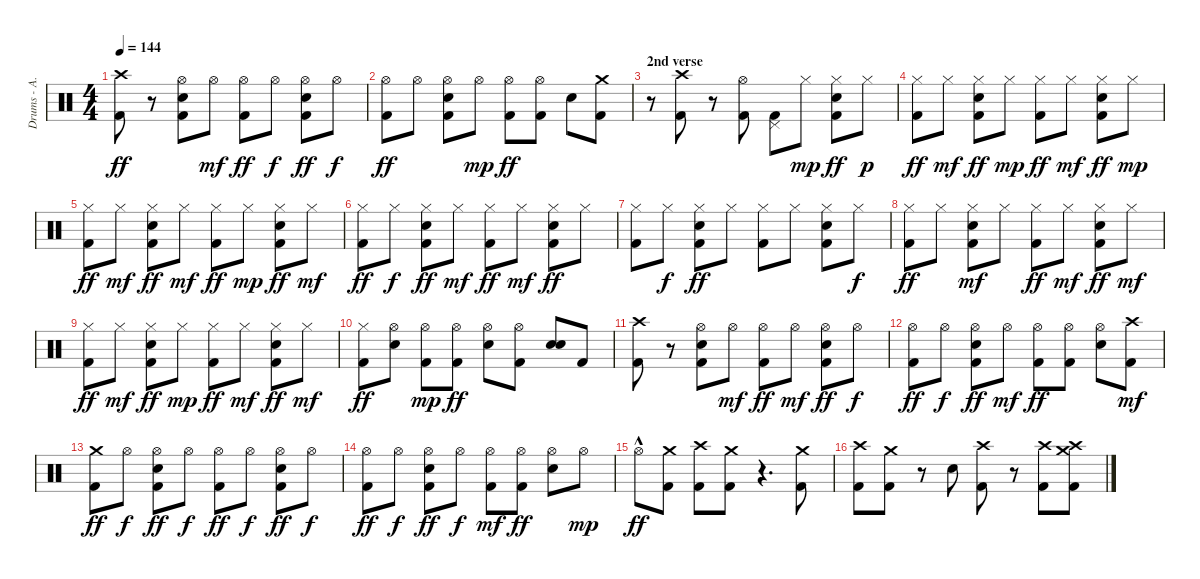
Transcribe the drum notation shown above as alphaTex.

\track ("Drums - A. Van Halen" "Drums - A.") {instrument percussion}
\staff {score}
\articulation defaults
\ts (4 4)
\tempo 144
\clef neutral
\ks c
("Kick (hit) 2" "Crash high (hit)").8{dy ff} r.8 ("Hi-Hat (open)" "Kick (hit) 2" "Electric Snare (hit)").8 "Hi-Hat (open)".8{dy mf} ("Kick (hit) 2" "Hi-Hat (open)").8{dy ff} "Hi-Hat (open)".8{dy f} ("Electric Snare (hit)" "Kick (hit) 2" "Hi-Hat (open)").8{dy ff} "Hi-Hat (open)".8{dy f} |
("Hi-Hat (open)" "Kick (hit) 2").8{dy ff} "Hi-Hat (open)".8 ("Electric Snare (hit)" "Hi-Hat (open)" "Kick (hit) 2").8 "Hi-Hat (open)".8{dy mp} ("Kick (hit) 2" "Hi-Hat (open)").8{dy ff} ("Hi-Hat (open)" "Kick (hit) 2").8 "Electric Snare (hit)".8 ("Crash medium (hit)" "Kick (hit) 2").8 |
\section ("" "2nd verse")
r.8 ("Kick (hit) 2" "Crash high (hit)").8 r.8 ("Kick (hit) 2" "Hi-Hat (open)").8 ("Kick (hit) 2" "Pedal Hi-Hat (hit)").8 "Hi-Hat (closed)".8{dy mp} ("Kick (hit) 2" "Hi-Hat (closed)" "Electric Snare (hit)").8{dy ff} "Hi-Hat (closed)".8{dy p} |
("Hi-Hat (closed)" "Kick (hit) 2").8{dy ff} "Hi-Hat (closed)".8{dy mf} ("Electric Snare (hit)" "Hi-Hat (closed)" "Kick (hit) 2").8{dy ff} "Hi-Hat (closed)".8{dy mp} ("Hi-Hat (closed)" "Kick (hit) 2").8{dy ff} "Hi-Hat (closed)".8{dy mf} ("Kick (hit) 2" "Electric Snare (hit)" "Hi-Hat (closed)").8{dy ff} "Hi-Hat (closed)".8{dy mp} |
("Kick (hit) 2" "Hi-Hat (closed)").8{dy ff} "Hi-Hat (closed)".8{dy mf} ("Kick (hit) 2" "Hi-Hat (closed)" "Electric Snare (hit)").8{dy ff} "Hi-Hat (closed)".8{dy mf} ("Hi-Hat (closed)" "Kick (hit) 2").8{dy ff} "Hi-Hat (closed)".8{dy mp} ("Electric Snare (hit)" "Kick (hit) 2" "Hi-Hat (closed)").8{dy ff} "Hi-Hat (closed)".8{dy mf} |
("Kick (hit) 2" "Hi-Hat (closed)").8{dy ff} "Hi-Hat (closed)".8{dy f} ("Kick (hit) 2" "Electric Snare (hit)" "Hi-Hat (closed)").8{dy ff} "Hi-Hat (closed)".8{dy mf} ("Kick (hit) 2" "Hi-Hat (closed)").8{dy ff} "Hi-Hat (closed)".8{dy mf} ("Kick (hit) 2" "Electric Snare (hit)" "Hi-Hat (closed)").8{dy ff} "Hi-Hat (closed)".8 |
("Hi-Hat (closed)" "Kick (hit) 2").8 "Hi-Hat (closed)".8{dy f} ("Electric Snare (hit)" "Hi-Hat (closed)" "Kick (hit) 2").8{dy ff} "Hi-Hat (closed)".8 ("Hi-Hat (closed)" "Kick (hit) 2").8 "Hi-Hat (closed)".8 ("Kick (hit) 2" "Electric Snare (hit)" "Hi-Hat (closed)").8 "Hi-Hat (closed)".8{dy f} |
("Kick (hit) 2" "Hi-Hat (closed)").8{dy ff} "Hi-Hat (closed)".8 ("Kick (hit) 2" "Hi-Hat (closed)" "Electric Snare (hit)").8{dy mf} "Hi-Hat (closed)".8 ("Hi-Hat (closed)" "Kick (hit) 2").8{dy ff} "Hi-Hat (closed)".8{dy mf} ("Electric Snare (hit)" "Hi-Hat (closed)" "Kick (hit) 2").8{dy ff} "Hi-Hat (closed)".8{dy mf} |
("Kick (hit) 2" "Hi-Hat (closed)").8{dy ff} "Hi-Hat (closed)".8{dy mf} ("Electric Snare (hit)" "Hi-Hat (closed)" "Kick (hit) 2").8{dy ff} "Hi-Hat (closed)".8{dy mp} ("Kick (hit) 2" "Hi-Hat (closed)").8{dy ff} "Hi-Hat (closed)".8{dy mf} ("Kick (hit) 2" "Electric Snare (hit)" "Hi-Hat (closed)").8{dy ff} "Hi-Hat (closed)".8{dy mf} |
("Hi-Hat (closed)" "Kick (hit) 2").8{dy ff} ("Electric Snare (hit)" "Hi-Hat (open)").8 ("Kick (hit) 2" "Hi-Hat (open)").8{dy mp} ("Hi-Hat (open)" "Kick (hit) 2").8{dy ff} ("Electric Snare (hit)" "Hi-Hat (open)").8 ("Hi-Hat (open)" "Kick (hit) 2").8 ("Electric Snare (hit)" "Electric Snare (hit)").8 "Kick (hit) 2".8 |
("Kick (hit) 2" "Crash high (hit)").8 r.8 ("Electric Snare (hit)" "Kick (hit) 2" "Hi-Hat (open)").8 "Hi-Hat (open)".8{dy mf} ("Kick (hit) 2" "Hi-Hat (open)").8{dy ff} "Hi-Hat (open)".8{dy mf} ("Kick (hit) 2" "Electric Snare (hit)" "Hi-Hat (open)").8{dy ff} "Hi-Hat (open)".8{dy f} |
("Hi-Hat (open)" "Kick (hit) 2").8{dy ff} "Hi-Hat (open)".8{dy f} ("Electric Snare (hit)" "Hi-Hat (open)" "Kick (hit) 2").8{dy ff} "Hi-Hat (open)".8{dy mf} ("Kick (hit) 2" "Hi-Hat (open)").8{dy ff} ("Kick (hit) 2" "Hi-Hat (open)").8 ("Electric Snare (hit)" "Hi-Hat (open)").8 ("Kick (hit) 2" "Crash high (hit)").8{dy mf} |
("Kick (hit) 2" "Crash medium (hit)").8{dy ff} "Hi-Hat (open)".8{dy f} ("Electric Snare (hit)" "Kick (hit) 2" "Hi-Hat (open)").8{dy ff} "Hi-Hat (open)".8{dy f} ("Kick (hit) 2" "Hi-Hat (open)").8{dy ff} "Hi-Hat (open)".8{dy f} ("Electric Snare (hit)" "Hi-Hat (open)" "Kick (hit) 2").8{dy ff} "Hi-Hat (open)".8{dy f} |
("Kick (hit) 2" "Hi-Hat (open)").8{dy ff} "Hi-Hat (open)".8{dy f} ("Kick (hit) 2" "Electric Snare (hit)" "Hi-Hat (open)").8{dy ff} "Hi-Hat (open)".8{dy f} ("Kick (hit) 2" "Hi-Hat (open)").8{dy mf} ("Hi-Hat (open)" "Kick (hit) 2").8{dy ff} ("Electric Snare (hit)" "Hi-Hat (open)").8 "Hi-Hat (open)".8{dy mp} |
"Hi-Hat (open)"{hac}.8{dy ff} ("Crash medium (hit)" "Kick (hit) 2").8 ("Crash high (hit)" "Kick (hit) 2").8 ("Crash medium (hit)" "Kick (hit) 2").8 r.4{d} ("Kick (hit) 2" "Crash medium (hit)").8 |
("Crash high (hit)" "Kick (hit) 2").8 ("Crash medium (hit)" "Kick (hit) 2").8 r.8 "Electric Snare (hit)".8 ("Crash high (hit)" "Kick (hit) 2").8 r.8 ("Crash high (hit)" "Kick (hit) 2").8 ("Crash high (hit)" "Crash medium (hit)" "Kick (hit) 2").8
